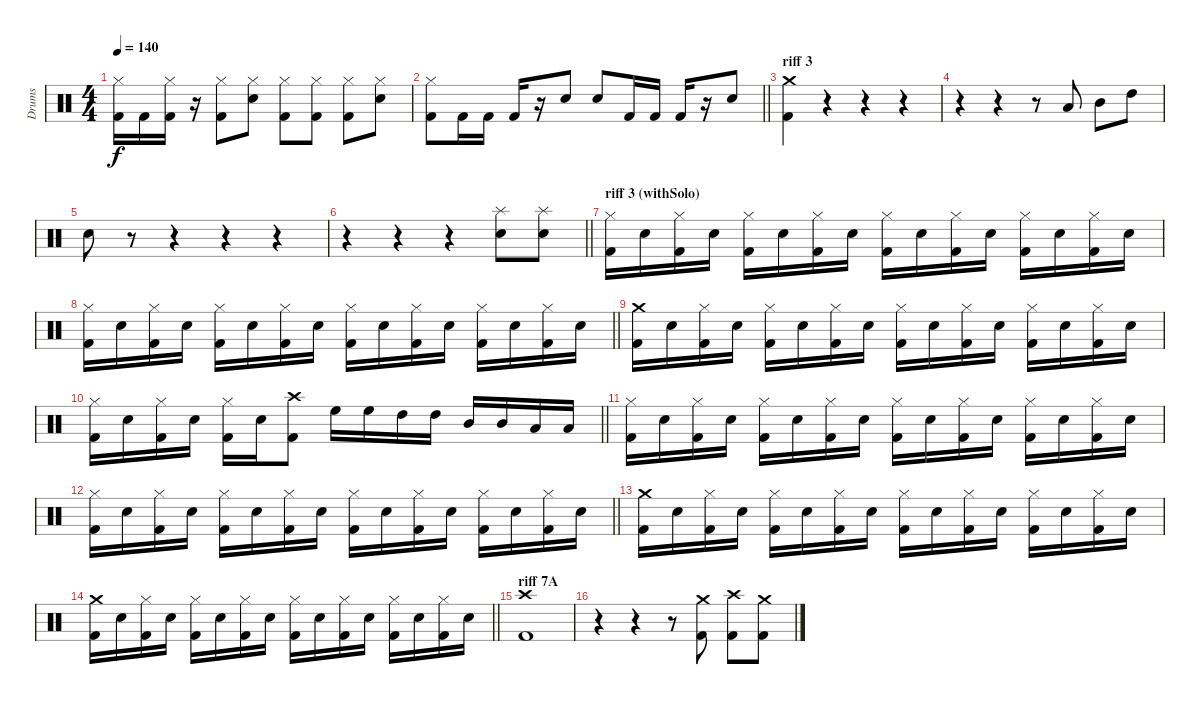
\track ("Drums" "Drums") {instrument percussion}
\staff {score}
\articulation defaults
\ts (4 4)
\tempo 140
\clef neutral
\ks c
("Kick (hit) 2" "Hi-Hat (closed)").16{dy f} "Kick (hit) 2".16 ("Kick (hit) 2" "Hi-Hat (closed)").16 r.16 ("Kick (hit) 2" "Hi-Hat (closed)").8 ("Snare (hit) 2" "Hi-Hat (closed)").8 ("Kick (hit) 2" "Hi-Hat (closed)").8 ("Kick (hit) 2" "Hi-Hat (closed)").8 ("Kick (hit) 2" "Hi-Hat (closed)").8 ("Snare (hit) 2" "Hi-Hat (closed)").8 |
\barLineRight lightlight
("Kick (hit) 2" "Hi-Hat (closed)").8 "Kick (hit) 2".16 "Kick (hit) 2".16 "Kick (hit) 2".16 r.16 "Snare (hit) 2".8 "Snare (hit) 2".8 "Kick (hit) 2".16 "Kick (hit) 2".16 "Kick (hit) 2".16 r.16 "Snare (hit) 2".8 |
\section ("" "riff 3")
("Kick (hit) 2" "Crash medium (hit)").4 r.4 r.4 r.4 |
r.4 r.4 r.8 "Low Tom (hit)".8 "Mid Tom (hit)".8 "High Tom (hit)".8 |
"Snare (hit) 2".8 r.8 r.4 r.4 r.4 |
\barLineRight lightlight
r.4 r.4 r.4 ("Snare (hit) 2" "Splash (hit)").8 ("Snare (hit) 2" "Splash (hit)").8 |
\section ("" "riff 3 (withSolo)")
("Kick (hit) 2" "Hi-Hat (closed)").16 "Snare (hit) 2".16 ("Kick (hit) 2" "Hi-Hat (closed)").16 "Snare (hit) 2".16 ("Kick (hit) 2" "Hi-Hat (closed)").16 "Snare (hit) 2".16 ("Kick (hit) 2" "Hi-Hat (closed)").16 "Snare (hit) 2".16 ("Kick (hit) 2" "Hi-Hat (closed)").16 "Snare (hit) 2".16 ("Kick (hit) 2" "Hi-Hat (closed)").16 "Snare (hit) 2".16 ("Kick (hit) 2" "Hi-Hat (closed)").16 "Snare (hit) 2".16 ("Kick (hit) 2" "Hi-Hat (closed)").16 "Snare (hit) 2".16 |
\barLineRight lightlight
("Kick (hit) 2" "Hi-Hat (closed)").16 "Snare (hit) 2".16 ("Kick (hit) 2" "Hi-Hat (closed)").16 "Snare (hit) 2".16 ("Kick (hit) 2" "Hi-Hat (closed)").16 "Snare (hit) 2".16 ("Kick (hit) 2" "Hi-Hat (closed)").16 "Snare (hit) 2".16 ("Kick (hit) 2" "Hi-Hat (closed)").16 "Snare (hit) 2".16 ("Kick (hit) 2" "Hi-Hat (closed)").16 "Snare (hit) 2".16 ("Kick (hit) 2" "Hi-Hat (closed)").16 "Snare (hit) 2".16 ("Kick (hit) 2" "Hi-Hat (closed)").16 "Snare (hit) 2".16 |
("Kick (hit) 2" "Crash medium (hit)").16 "Snare (hit) 2".16 ("Kick (hit) 2" "Hi-Hat (closed)").16 "Snare (hit) 2".16 ("Kick (hit) 2" "Hi-Hat (closed)").16 "Snare (hit) 2".16 ("Kick (hit) 2" "Hi-Hat (closed)").16 "Snare (hit) 2".16 ("Kick (hit) 2" "Hi-Hat (closed)").16 "Snare (hit) 2".16 ("Kick (hit) 2" "Hi-Hat (closed)").16 "Snare (hit) 2".16 ("Kick (hit) 2" "Hi-Hat (closed)").16 "Snare (hit) 2".16 ("Kick (hit) 2" "Hi-Hat (closed)").16 "Snare (hit) 2".16 |
\barLineRight lightlight
("Kick (hit) 2" "Hi-Hat (closed)").16 "Snare (hit) 2".16 ("Kick (hit) 2" "Hi-Hat (closed)").16 "Snare (hit) 2".16 ("Kick (hit) 2" "Hi-Hat (closed)").16 "Snare (hit) 2".16 ("Kick (hit) 2" "Crash high (hit)").8 "High Floor Tom (hit)".16 "High Floor Tom (hit)".16 "High Tom (hit)".16 "High Tom (hit)".16 "Mid Tom (hit)".16 "Mid Tom (hit)".16 "Low Tom (hit)".16 "Low Tom (hit)".16 |
("Kick (hit) 2" "Hi-Hat (closed)").16 "Snare (hit) 2".16 ("Kick (hit) 2" "Hi-Hat (closed)").16 "Snare (hit) 2".16 ("Kick (hit) 2" "Hi-Hat (closed)").16 "Snare (hit) 2".16 ("Kick (hit) 2" "Hi-Hat (closed)").16 "Snare (hit) 2".16 ("Kick (hit) 2" "Hi-Hat (closed)").16 "Snare (hit) 2".16 ("Kick (hit) 2" "Hi-Hat (closed)").16 "Snare (hit) 2".16 ("Kick (hit) 2" "Hi-Hat (closed)").16 "Snare (hit) 2".16 ("Kick (hit) 2" "Hi-Hat (closed)").16 "Snare (hit) 2".16 |
\barLineRight lightlight
("Kick (hit) 2" "Hi-Hat (closed)").16 "Snare (hit) 2".16 ("Kick (hit) 2" "Hi-Hat (closed)").16 "Snare (hit) 2".16 ("Kick (hit) 2" "Hi-Hat (closed)").16 "Snare (hit) 2".16 ("Kick (hit) 2" "Hi-Hat (closed)").16 "Snare (hit) 2".16 ("Kick (hit) 2" "Hi-Hat (closed)").16 "Snare (hit) 2".16 ("Kick (hit) 2" "Hi-Hat (closed)").16 "Snare (hit) 2".16 ("Kick (hit) 2" "Hi-Hat (closed)").16 "Snare (hit) 2".16 ("Kick (hit) 2" "Hi-Hat (closed)").16 "Snare (hit) 2".16 |
("Kick (hit) 2" "Crash medium (hit)").16 "Snare (hit) 2".16 ("Kick (hit) 2" "Hi-Hat (closed)").16 "Snare (hit) 2".16 ("Kick (hit) 2" "Hi-Hat (closed)").16 "Snare (hit) 2".16 ("Kick (hit) 2" "Hi-Hat (closed)").16 "Snare (hit) 2".16 ("Kick (hit) 2" "Hi-Hat (closed)").16 "Snare (hit) 2".16 ("Kick (hit) 2" "Hi-Hat (closed)").16 "Snare (hit) 2".16 ("Kick (hit) 2" "Hi-Hat (closed)").16 "Snare (hit) 2".16 ("Kick (hit) 2" "Hi-Hat (closed)").16 "Snare (hit) 2".16 |
\barLineRight lightlight
("Kick (hit) 2" "Crash medium (hit)").16 "Snare (hit) 2".16 ("Kick (hit) 2" "Hi-Hat (closed)").16 "Snare (hit) 2".16 ("Kick (hit) 2" "Hi-Hat (closed)").16 "Snare (hit) 2".16 ("Kick (hit) 2" "Hi-Hat (closed)").16 "Snare (hit) 2".16 ("Kick (hit) 2" "Hi-Hat (closed)").16 "Snare (hit) 2".16 ("Kick (hit) 2" "Hi-Hat (closed)").16 "Snare (hit) 2".16 ("Kick (hit) 2" "Hi-Hat (closed)").16 "Snare (hit) 2".16 ("Kick (hit) 2" "Hi-Hat (closed)").16 "Snare (hit) 2".16 |
\section ("" "riff 7A")
("Kick (hit) 2" "Crash high (hit)").1 |
r.4 r.4 r.8 ("Kick (hit) 2" "Crash medium (hit)").8 ("Kick (hit) 2" "Crash high (hit)").8 ("Kick (hit) 2" "Crash medium (hit)").8
